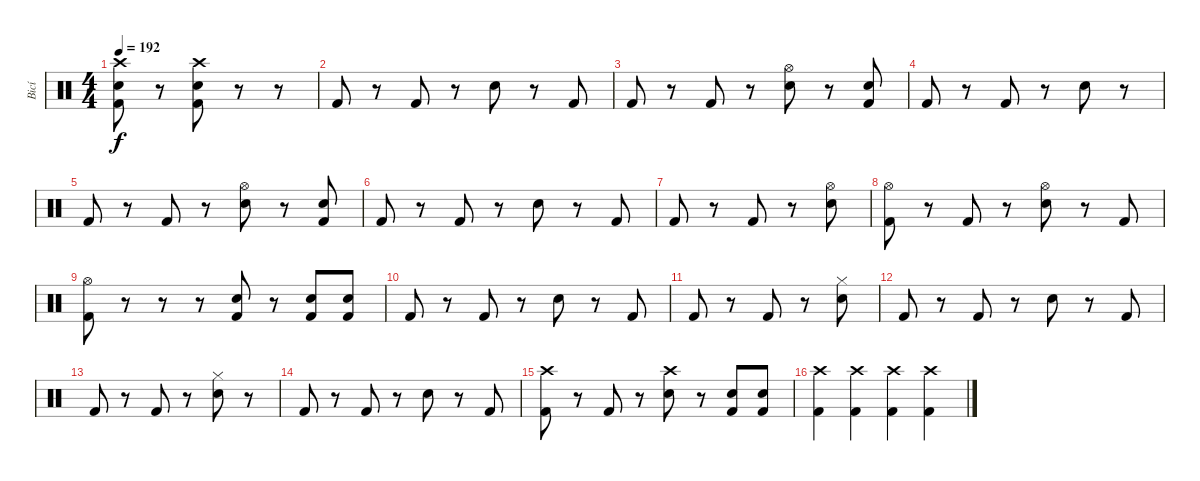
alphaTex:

\track ("Bicí" "Bicí") {instrument percussion}
\staff {score}
\articulation defaults
\ts (4 4)
\tempo 192
\clef neutral
\ks c
("Crash high (hit)" "Electric Snare (hit)" "Kick (hit) 2").8{dy f} r.8 ("Crash high (hit)" "Electric Snare (hit)" "Kick (hit) 2").8 r.8 r.8 |
"Kick (hit) 2".8 r.8 "Kick (hit) 2".8 r.8 "Electric Snare (hit)".8 r.8 "Kick (hit) 2".8 |
"Kick (hit) 2".8 r.8 "Kick (hit) 2".8 r.8 ("Hi-Hat (open)" "Electric Snare (hit)").8 r.8 ("Electric Snare (hit)" "Kick (hit) 2").8 |
"Kick (hit) 2".8 r.8 "Kick (hit) 2".8 r.8 "Electric Snare (hit)".8 r.8 |
"Kick (hit) 2".8 r.8 "Kick (hit) 2".8 r.8 ("Hi-Hat (open)" "Electric Snare (hit)").8 r.8 ("Electric Snare (hit)" "Kick (hit) 2").8 |
"Kick (hit) 2".8 r.8 "Kick (hit) 2".8 r.8 "Electric Snare (hit)".8 r.8 "Kick (hit) 2".8 |
"Kick (hit) 2".8 r.8 "Kick (hit) 2".8 r.8 ("Hi-Hat (open)" "Electric Snare (hit)").8 |
("Hi-Hat (open)" "Kick (hit) 2").8 r.8 "Kick (hit) 2".8 r.8 ("Hi-Hat (open)" "Electric Snare (hit)").8 r.8 "Kick (hit) 2".8 |
("Hi-Hat (open)" "Kick (hit) 2").8 r.8 r.8 r.8 ("Electric Snare (hit)" "Kick (hit) 2").8 r.8 ("Electric Snare (hit)" "Kick (hit) 2").8 ("Electric Snare (hit)" "Kick (hit) 2").8 |
"Kick (hit) 2".8 r.8 "Kick (hit) 2".8 r.8 "Electric Snare (hit)".8 r.8 "Kick (hit) 2".8 |
"Kick (hit) 2".8 r.8 "Kick (hit) 2".8 r.8 ("Hi-Hat (closed)" "Electric Snare (hit)").8 |
"Kick (hit) 2".8 r.8 "Kick (hit) 2".8 r.8 "Electric Snare (hit)".8 r.8 "Kick (hit) 2".8 |
"Kick (hit) 2".8 r.8 "Kick (hit) 2".8 r.8 ("Hi-Hat (closed)" "Electric Snare (hit)").8 r.8 |
"Kick (hit) 2".8 r.8 "Kick (hit) 2".8 r.8 "Electric Snare (hit)".8 r.8 "Kick (hit) 2".8 |
("Crash high (hit)" "Kick (hit) 2").8 r.8 "Kick (hit) 2".8 r.8 ("Crash high (hit)" "Electric Snare (hit)").8 r.8 ("Electric Snare (hit)" "Kick (hit) 2").8 ("Electric Snare (hit)" "Kick (hit) 2").8 |
("Crash high (hit)" "Kick (hit) 2").4 ("Crash high (hit)" "Kick (hit) 2").4 ("Crash high (hit)" "Kick (hit) 2").4 ("Crash high (hit)" "Kick (hit) 2").4
